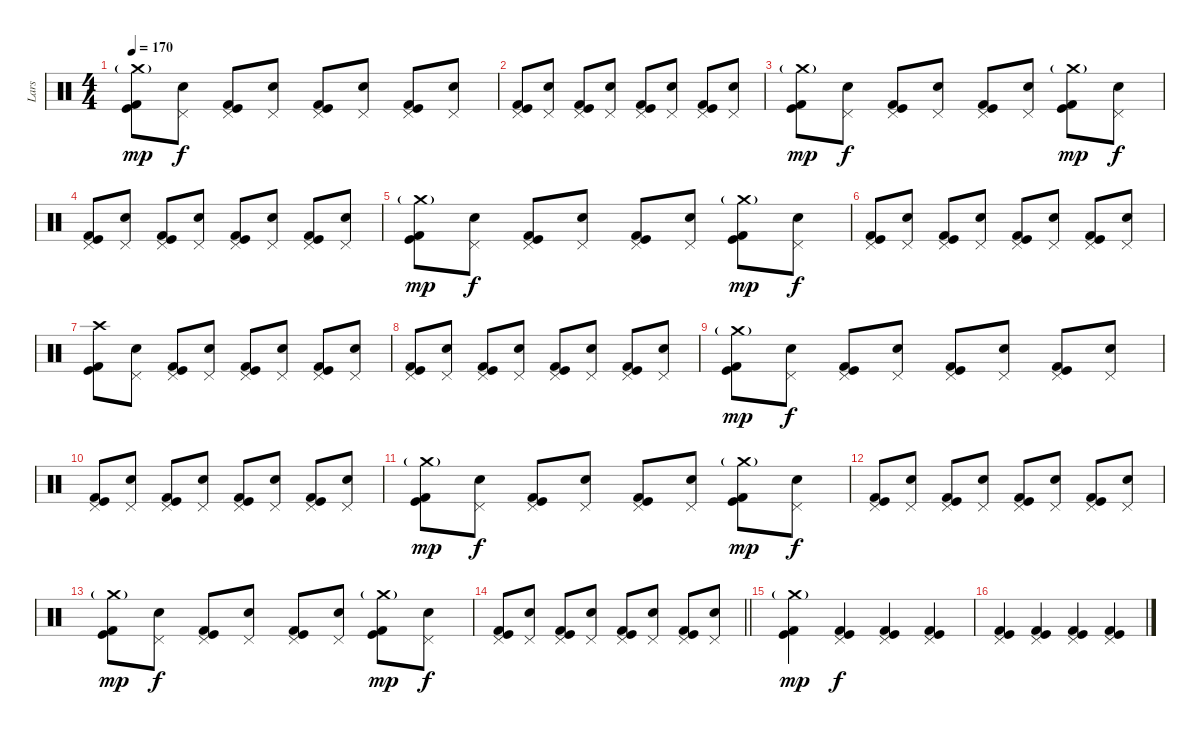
\track ("Lars" "Lars") {instrument percussion}
\staff {score}
\articulation defaults
\ts (4 4)
\tempo 170
\clef neutral
\ks c
("Crash medium (hit)"{g} "Kick (hit)" "Kick (hit) 2").8{dy mp} ("Pedal Hi-Hat (hit)" "Electric Snare (hit)").8{dy f} ("Pedal Hi-Hat (hit)" "Kick (hit)" "Kick (hit) 2").8 ("Pedal Hi-Hat (hit)" "Electric Snare (hit)").8 ("Pedal Hi-Hat (hit)" "Kick (hit)" "Kick (hit) 2").8 ("Pedal Hi-Hat (hit)" "Electric Snare (hit)").8 ("Pedal Hi-Hat (hit)" "Kick (hit)" "Kick (hit) 2").8 ("Pedal Hi-Hat (hit)" "Electric Snare (hit)").8 |
("Pedal Hi-Hat (hit)" "Kick (hit)" "Kick (hit) 2").8 ("Pedal Hi-Hat (hit)" "Electric Snare (hit)").8 ("Pedal Hi-Hat (hit)" "Kick (hit)" "Kick (hit) 2").8 ("Pedal Hi-Hat (hit)" "Electric Snare (hit)").8 ("Pedal Hi-Hat (hit)" "Kick (hit)" "Kick (hit) 2").8 ("Pedal Hi-Hat (hit)" "Electric Snare (hit)").8 ("Pedal Hi-Hat (hit)" "Kick (hit)" "Kick (hit) 2").8 ("Pedal Hi-Hat (hit)" "Electric Snare (hit)").8 |
("Crash medium (hit)"{g} "Kick (hit)" "Kick (hit) 2").8{dy mp} ("Pedal Hi-Hat (hit)" "Electric Snare (hit)").8{dy f} ("Pedal Hi-Hat (hit)" "Kick (hit)" "Kick (hit) 2").8 ("Pedal Hi-Hat (hit)" "Electric Snare (hit)").8 ("Pedal Hi-Hat (hit)" "Kick (hit)" "Kick (hit) 2").8 ("Pedal Hi-Hat (hit)" "Electric Snare (hit)").8 ("Crash medium (hit)"{g} "Kick (hit)" "Kick (hit) 2").8{dy mp} ("Pedal Hi-Hat (hit)" "Electric Snare (hit)").8{dy f} |
("Pedal Hi-Hat (hit)" "Kick (hit)" "Kick (hit) 2").8 ("Pedal Hi-Hat (hit)" "Electric Snare (hit)").8 ("Pedal Hi-Hat (hit)" "Kick (hit)" "Kick (hit) 2").8 ("Pedal Hi-Hat (hit)" "Electric Snare (hit)").8 ("Pedal Hi-Hat (hit)" "Kick (hit)" "Kick (hit) 2").8 ("Pedal Hi-Hat (hit)" "Electric Snare (hit)").8 ("Pedal Hi-Hat (hit)" "Kick (hit)" "Kick (hit) 2").8 ("Pedal Hi-Hat (hit)" "Electric Snare (hit)").8 |
("Crash medium (hit)"{g} "Kick (hit)" "Kick (hit) 2").8{dy mp} ("Pedal Hi-Hat (hit)" "Electric Snare (hit)").8{dy f} ("Pedal Hi-Hat (hit)" "Kick (hit)" "Kick (hit) 2").8 ("Pedal Hi-Hat (hit)" "Electric Snare (hit)").8 ("Pedal Hi-Hat (hit)" "Kick (hit)" "Kick (hit) 2").8 ("Pedal Hi-Hat (hit)" "Electric Snare (hit)").8 ("Crash medium (hit)"{g} "Kick (hit)" "Kick (hit) 2").8{dy mp} ("Pedal Hi-Hat (hit)" "Electric Snare (hit)").8{dy f} |
("Pedal Hi-Hat (hit)" "Kick (hit)" "Kick (hit) 2").8 ("Pedal Hi-Hat (hit)" "Electric Snare (hit)").8 ("Pedal Hi-Hat (hit)" "Kick (hit)" "Kick (hit) 2").8 ("Pedal Hi-Hat (hit)" "Electric Snare (hit)").8 ("Pedal Hi-Hat (hit)" "Kick (hit)" "Kick (hit) 2").8 ("Pedal Hi-Hat (hit)" "Electric Snare (hit)").8 ("Pedal Hi-Hat (hit)" "Kick (hit)" "Kick (hit) 2").8 ("Pedal Hi-Hat (hit)" "Electric Snare (hit)").8 |
("Crash high (hit)" "Kick (hit)" "Kick (hit) 2").8 ("Pedal Hi-Hat (hit)" "Electric Snare (hit)").8 ("Pedal Hi-Hat (hit)" "Kick (hit)" "Kick (hit) 2").8 ("Pedal Hi-Hat (hit)" "Electric Snare (hit)").8 ("Pedal Hi-Hat (hit)" "Kick (hit)" "Kick (hit) 2").8 ("Pedal Hi-Hat (hit)" "Electric Snare (hit)").8 ("Pedal Hi-Hat (hit)" "Kick (hit)" "Kick (hit) 2").8 ("Pedal Hi-Hat (hit)" "Electric Snare (hit)").8 |
("Pedal Hi-Hat (hit)" "Kick (hit)" "Kick (hit) 2").8 ("Pedal Hi-Hat (hit)" "Electric Snare (hit)").8 ("Pedal Hi-Hat (hit)" "Kick (hit)" "Kick (hit) 2").8 ("Pedal Hi-Hat (hit)" "Electric Snare (hit)").8 ("Pedal Hi-Hat (hit)" "Kick (hit)" "Kick (hit) 2").8 ("Pedal Hi-Hat (hit)" "Electric Snare (hit)").8 ("Pedal Hi-Hat (hit)" "Kick (hit)" "Kick (hit) 2").8 ("Pedal Hi-Hat (hit)" "Electric Snare (hit)").8 |
("Crash medium (hit)"{g} "Kick (hit)" "Kick (hit) 2").8{dy mp} ("Pedal Hi-Hat (hit)" "Electric Snare (hit)").8{dy f} ("Pedal Hi-Hat (hit)" "Kick (hit)" "Kick (hit) 2").8 ("Pedal Hi-Hat (hit)" "Electric Snare (hit)").8 ("Pedal Hi-Hat (hit)" "Kick (hit)" "Kick (hit) 2").8 ("Pedal Hi-Hat (hit)" "Electric Snare (hit)").8 ("Pedal Hi-Hat (hit)" "Kick (hit)" "Kick (hit) 2").8 ("Pedal Hi-Hat (hit)" "Electric Snare (hit)").8 |
("Pedal Hi-Hat (hit)" "Kick (hit)" "Kick (hit) 2").8 ("Pedal Hi-Hat (hit)" "Electric Snare (hit)").8 ("Pedal Hi-Hat (hit)" "Kick (hit)" "Kick (hit) 2").8 ("Pedal Hi-Hat (hit)" "Electric Snare (hit)").8 ("Pedal Hi-Hat (hit)" "Kick (hit)" "Kick (hit) 2").8 ("Pedal Hi-Hat (hit)" "Electric Snare (hit)").8 ("Pedal Hi-Hat (hit)" "Kick (hit)" "Kick (hit) 2").8 ("Pedal Hi-Hat (hit)" "Electric Snare (hit)").8 |
("Crash medium (hit)"{g} "Kick (hit)" "Kick (hit) 2").8{dy mp} ("Pedal Hi-Hat (hit)" "Electric Snare (hit)").8{dy f} ("Pedal Hi-Hat (hit)" "Kick (hit)" "Kick (hit) 2").8 ("Pedal Hi-Hat (hit)" "Electric Snare (hit)").8 ("Pedal Hi-Hat (hit)" "Kick (hit)" "Kick (hit) 2").8 ("Pedal Hi-Hat (hit)" "Electric Snare (hit)").8 ("Crash medium (hit)"{g} "Kick (hit)" "Kick (hit) 2").8{dy mp} ("Pedal Hi-Hat (hit)" "Electric Snare (hit)").8{dy f} |
("Pedal Hi-Hat (hit)" "Kick (hit)" "Kick (hit) 2").8 ("Pedal Hi-Hat (hit)" "Electric Snare (hit)").8 ("Pedal Hi-Hat (hit)" "Kick (hit)" "Kick (hit) 2").8 ("Pedal Hi-Hat (hit)" "Electric Snare (hit)").8 ("Pedal Hi-Hat (hit)" "Kick (hit)" "Kick (hit) 2").8 ("Pedal Hi-Hat (hit)" "Electric Snare (hit)").8 ("Pedal Hi-Hat (hit)" "Kick (hit)" "Kick (hit) 2").8 ("Pedal Hi-Hat (hit)" "Electric Snare (hit)").8 |
("Crash medium (hit)"{g} "Kick (hit)" "Kick (hit) 2").8{dy mp} ("Pedal Hi-Hat (hit)" "Electric Snare (hit)").8{dy f} ("Pedal Hi-Hat (hit)" "Kick (hit)" "Kick (hit) 2").8 ("Pedal Hi-Hat (hit)" "Electric Snare (hit)").8 ("Pedal Hi-Hat (hit)" "Kick (hit)" "Kick (hit) 2").8 ("Pedal Hi-Hat (hit)" "Electric Snare (hit)").8 ("Crash medium (hit)"{g} "Kick (hit)" "Kick (hit) 2").8{dy mp} ("Pedal Hi-Hat (hit)" "Electric Snare (hit)").8{dy f} |
\barLineRight lightlight
("Pedal Hi-Hat (hit)" "Kick (hit)" "Kick (hit) 2").8 ("Pedal Hi-Hat (hit)" "Electric Snare (hit)").8 ("Pedal Hi-Hat (hit)" "Kick (hit)" "Kick (hit) 2").8 ("Pedal Hi-Hat (hit)" "Electric Snare (hit)").8 ("Pedal Hi-Hat (hit)" "Kick (hit)" "Kick (hit) 2").8 ("Pedal Hi-Hat (hit)" "Electric Snare (hit)").8 ("Pedal Hi-Hat (hit)" "Kick (hit)" "Kick (hit) 2").8 ("Pedal Hi-Hat (hit)" "Electric Snare (hit)").8 |
\section ("" "")
("Crash medium (hit)"{g} "Kick (hit)" "Kick (hit) 2").4{dy mp} ("Pedal Hi-Hat (hit)" "Kick (hit)" "Kick (hit) 2").4{dy f} ("Pedal Hi-Hat (hit)" "Kick (hit)" "Kick (hit) 2").4 ("Pedal Hi-Hat (hit)" "Kick (hit)" "Kick (hit) 2").4 |
("Pedal Hi-Hat (hit)" "Kick (hit)" "Kick (hit) 2").4 ("Pedal Hi-Hat (hit)" "Kick (hit)" "Kick (hit) 2").4 ("Pedal Hi-Hat (hit)" "Kick (hit)" "Kick (hit) 2").4 ("Pedal Hi-Hat (hit)" "Kick (hit)" "Kick (hit) 2").4
